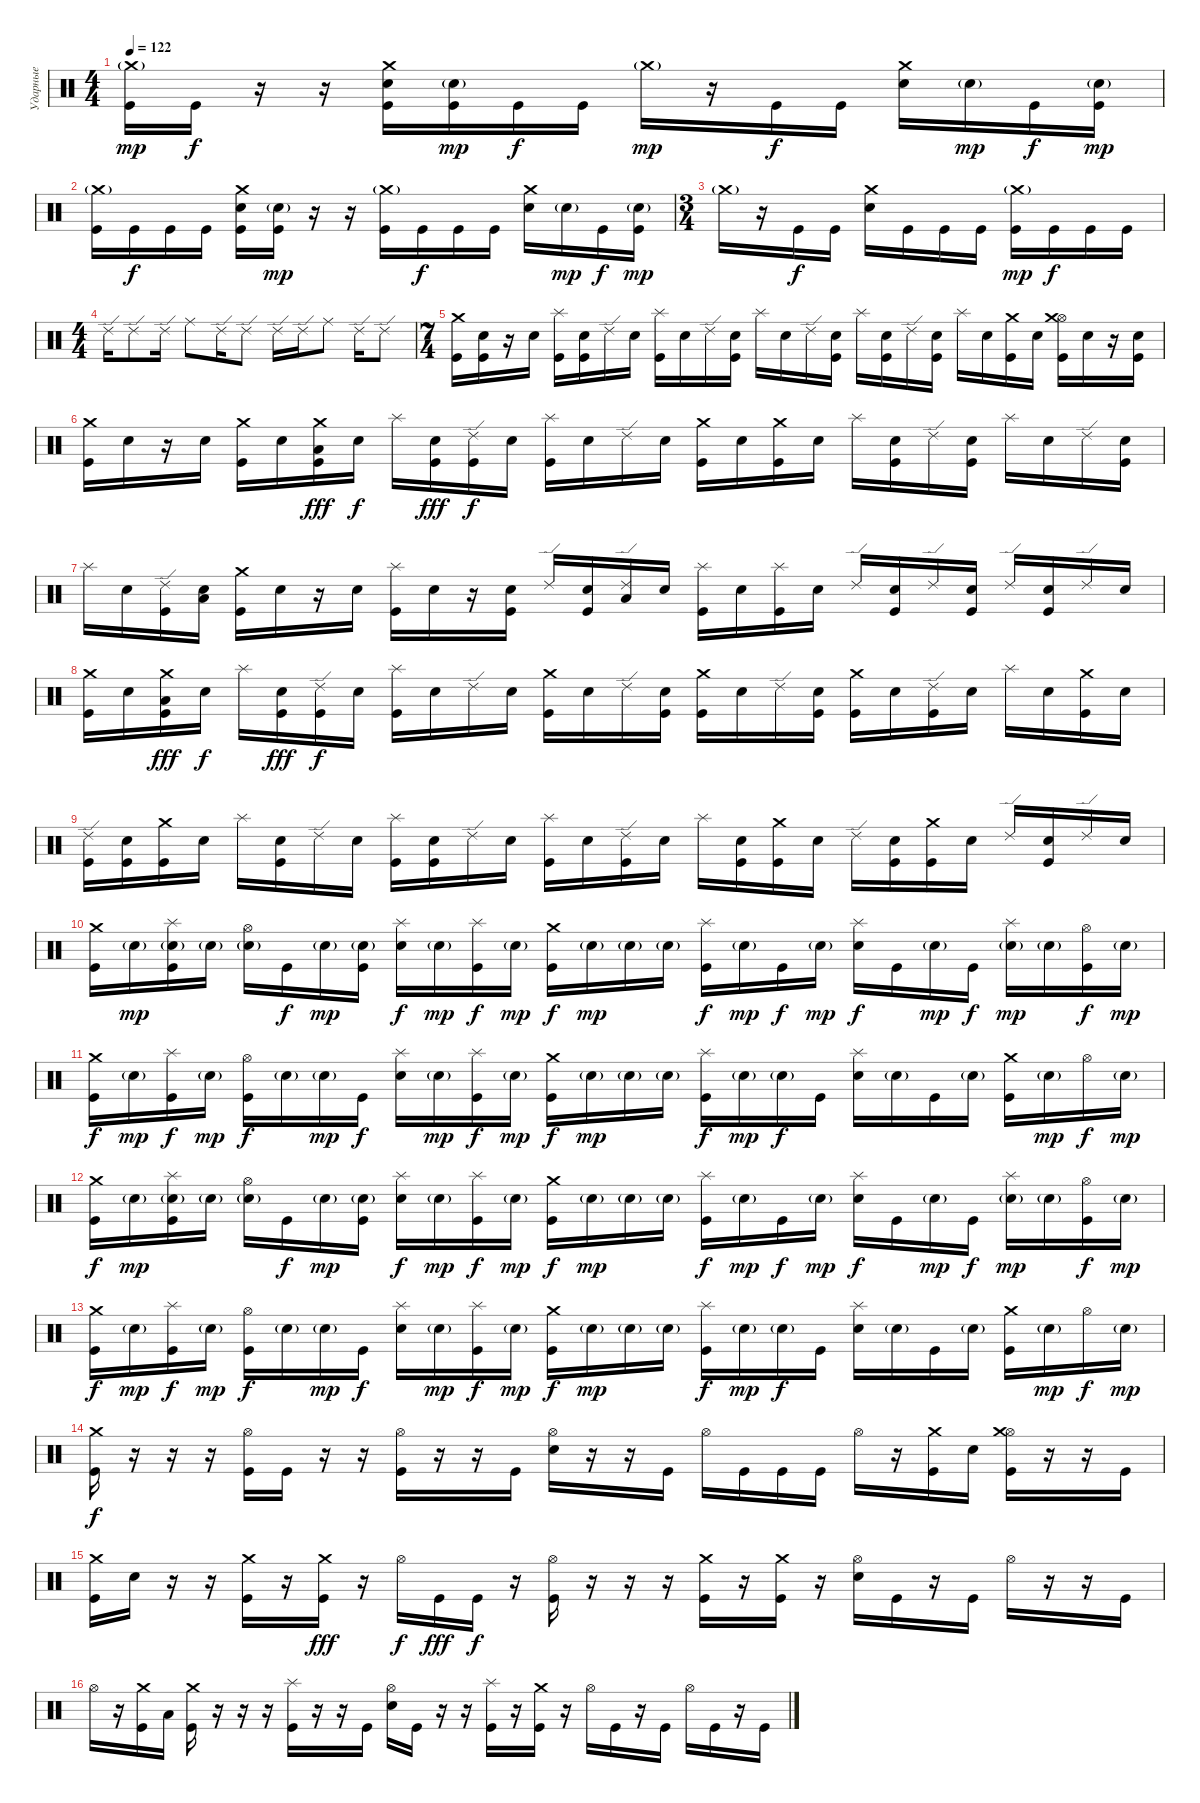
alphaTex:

\track ("Ударные" "Ударные") {instrument percussion}
\staff {score}
\articulation defaults
\ts (4 4)
\tempo 122
\clef neutral
\ks c
("Crash medium (hit)"{g} "Kick (hit)").16{dy mp} "Kick (hit)".16{dy f} r.16 r.16 ("Crash medium (hit)" "Electric Snare (hit)" "Kick (hit)").16 ("Electric Snare (hit)"{g} "Kick (hit)").16{dy mp} "Kick (hit)".16{dy f} "Kick (hit)".16 "Crash medium (hit)"{g}.16{dy mp} r.16 "Kick (hit)".16{dy f} "Kick (hit)".16 ("Crash medium (hit)" "Electric Snare (hit)").16 "Electric Snare (hit)"{g}.16{dy mp} "Kick (hit)".16{dy f} ("Electric Snare (hit)"{g} "Kick (hit)").16{dy mp} |
("Crash medium (hit)"{g} "Kick (hit)").16 "Kick (hit)".16{dy f} "Kick (hit)".16 "Kick (hit)".16 ("Crash medium (hit)" "Electric Snare (hit)" "Kick (hit)").16 ("Electric Snare (hit)"{g} "Kick (hit)").16{dy mp} r.16 r.16 ("Crash medium (hit)"{g} "Kick (hit)").16 "Kick (hit)".16{dy f} "Kick (hit)".16 "Kick (hit)".16 ("Crash medium (hit)" "Electric Snare (hit)").16 "Electric Snare (hit)"{g}.16{dy mp} "Kick (hit)".16{dy f} ("Electric Snare (hit)"{g} "Kick (hit)").16{dy mp} |
\ts (3 4)
"Crash medium (hit)"{g}.16 r.16 "Kick (hit)".16{dy f} "Kick (hit)".16 ("Crash medium (hit)" "Electric Snare (hit)").16 "Kick (hit)".16 "Kick (hit)".16 "Kick (hit)".16 ("Crash medium (hit)"{g} "Kick (hit)").16{dy mp} "Kick (hit)".16{dy f} "Kick (hit)".16 "Kick (hit)".16 |
\ts (4 4)
"Ride (edge) 2".16 "Ride (edge) 2".8 "Ride (edge) 2".16 "Ride (middle)".8 "Ride (edge) 2".16 "Ride (edge) 2".8 "Ride (edge) 2".16 "Ride (edge) 2".16 "Ride (middle)".8 "Ride (edge) 2".16 "Ride (edge) 2".8 |
\ts (7 4)
("Crash medium (hit)" "Kick (hit)").16 ("Electric Snare (hit)" "Kick (hit)").16 r.16 "Electric Snare (hit)".16 ("Splash (hit)" "Kick (hit)").16 ("Electric Snare (hit)" "Kick (hit)").16 "Ride (edge) 2".16 "Electric Snare (hit)".16 ("Splash (hit)" "Kick (hit)").16 "Electric Snare (hit)".16 "Ride (edge) 2".16 ("Electric Snare (hit)" "Kick (hit)").16 "Splash (hit)".16 "Electric Snare (hit)".16 "Ride (edge) 2".16 ("Electric Snare (hit)" "Kick (hit)").16 "Splash (hit)".16 ("Electric Snare (hit)" "Kick (hit)").16 "Ride (edge) 2".16 ("Electric Snare (hit)" "Kick (hit)").16 "Splash (hit)".16 "Electric Snare (hit)".16 ("Crash medium (hit)" "Kick (hit)").16 "Electric Snare (hit)".16 ("Hi-Hat (open)" "Crash medium (hit)" "Kick (hit)").16 "Electric Snare (hit)".16 r.16 ("Electric Snare (hit)" "Kick (hit)").16 |
("Crash medium (hit)" "Kick (hit)").16 "Electric Snare (hit)".16 r.16 "Electric Snare (hit)".16 ("Crash medium (hit)" "Kick (hit)").16 "Electric Snare (hit)".16 ("Crash medium (hit)" "Low Tom (hit)" "Kick (hit)").16{dy fff} "Electric Snare (hit)".16{dy f} "Splash (hit)".16 ("Electric Snare (hit)" "Kick (hit)").16{dy fff} ("Ride (edge) 2" "Kick (hit)").16{dy f} "Electric Snare (hit)".16 ("Splash (hit)" "Kick (hit)").16 "Electric Snare (hit)".16 "Ride (edge) 2".16 "Electric Snare (hit)".16 ("Crash medium (hit)" "Kick (hit)").16 "Electric Snare (hit)".16 ("Crash medium (hit)" "Kick (hit)").16 "Electric Snare (hit)".16 "Splash (hit)".16 ("Electric Snare (hit)" "Kick (hit)").16 "Ride (edge) 2".16 ("Electric Snare (hit)" "Kick (hit)").16 "Splash (hit)".16 "Electric Snare (hit)".16 "Ride (edge) 2".16 ("Electric Snare (hit)" "Kick (hit)").16 |
"Splash (hit)".16 "Electric Snare (hit)".16 ("Ride (edge) 2" "Kick (hit)").16 ("Electric Snare (hit)" "Low Tom (hit)").16 ("Crash medium (hit)" "Kick (hit)").16 "Electric Snare (hit)".16 r.16 "Electric Snare (hit)".16 ("Splash (hit)" "Kick (hit)").16 "Electric Snare (hit)".16 r.16 ("Electric Snare (hit)" "Kick (hit)").16 "Ride (edge) 2".16 ("Electric Snare (hit)" "Kick (hit)").16 ("Ride (edge) 2" "Low Tom (hit)").16 "Electric Snare (hit)".16 ("Splash (hit)" "Kick (hit)").16 "Electric Snare (hit)".16 ("Splash (hit)" "Kick (hit)").16 "Electric Snare (hit)".16 "Ride (edge) 2".16 ("Electric Snare (hit)" "Kick (hit)").16 "Ride (edge) 2".16 ("Electric Snare (hit)" "Kick (hit)").16 "Ride (edge) 2".16 ("Electric Snare (hit)" "Kick (hit)").16 "Ride (edge) 2".16 "Electric Snare (hit)".16 |
("Crash medium (hit)" "Kick (hit)").16 "Electric Snare (hit)".16 ("Crash medium (hit)" "Low Tom (hit)" "Kick (hit)").16{dy fff} "Electric Snare (hit)".16{dy f} "Splash (hit)".16 ("Electric Snare (hit)" "Kick (hit)").16{dy fff} ("Ride (edge) 2" "Kick (hit)").16{dy f} "Electric Snare (hit)".16 ("Splash (hit)" "Kick (hit)").16 "Electric Snare (hit)".16 "Ride (edge) 2".16 "Electric Snare (hit)".16 ("Crash medium (hit)" "Kick (hit)").16 "Electric Snare (hit)".16 "Ride (edge) 2".16 ("Electric Snare (hit)" "Kick (hit)").16 ("Crash medium (hit)" "Kick (hit)").16 "Electric Snare (hit)".16 "Ride (edge) 2".16 ("Electric Snare (hit)" "Kick (hit)").16 ("Crash medium (hit)" "Kick (hit)").16 "Electric Snare (hit)".16 ("Ride (edge) 2" "Kick (hit)").16 "Electric Snare (hit)".16 "Splash (hit)".16 "Electric Snare (hit)".16 ("Crash medium (hit)" "Kick (hit)").16 "Electric Snare (hit)".16 |
("Ride (edge) 2" "Kick (hit)").16 ("Electric Snare (hit)" "Kick (hit)").16 ("Crash medium (hit)" "Kick (hit)").16 "Electric Snare (hit)".16 "Splash (hit)".16 ("Electric Snare (hit)" "Kick (hit)").16 "Ride (edge) 2".16 "Electric Snare (hit)".16 ("Splash (hit)" "Kick (hit)").16 ("Electric Snare (hit)" "Kick (hit)").16 "Ride (edge) 2".16 "Electric Snare (hit)".16 ("Splash (hit)" "Kick (hit)").16 "Electric Snare (hit)".16 ("Ride (edge) 2" "Kick (hit)").16 "Electric Snare (hit)".16 "Splash (hit)".16 ("Electric Snare (hit)" "Kick (hit)").16 ("Crash medium (hit)" "Kick (hit)").16 "Electric Snare (hit)".16 "Ride (edge) 2".16 ("Electric Snare (hit)" "Kick (hit)").16 ("Crash medium (hit)" "Kick (hit)").16 "Electric Snare (hit)".16 "Ride (edge) 2".16 ("Electric Snare (hit)" "Kick (hit)").16 "Ride (edge) 2".16 "Electric Snare (hit)".16 |
("Crash medium (hit)" "Kick (hit)").16 "Electric Snare (hit)"{g}.16{dy mp} ("Splash (hit)" "Electric Snare (hit)"{g} "Kick (hit)").16 "Electric Snare (hit)"{g}.16 ("Hi-Hat (open)" "Electric Snare (hit)"{g}).16 "Kick (hit)".16{dy f} "Electric Snare (hit)"{g}.16{dy mp} ("Electric Snare (hit)"{g} "Kick (hit)").16 ("Splash (hit)" "Electric Snare (hit)").16{dy f} "Electric Snare (hit)"{g}.16{dy mp} ("Splash (hit)" "Kick (hit)").16{dy f} "Electric Snare (hit)"{g}.16{dy mp} ("Crash medium (hit)" "Kick (hit)").16{dy f} "Electric Snare (hit)"{g}.16{dy mp} "Electric Snare (hit)"{g}.16 "Electric Snare (hit)"{g}.16 ("Splash (hit)" "Kick (hit)").16{dy f} "Electric Snare (hit)"{g}.16{dy mp} "Kick (hit)".16{dy f} "Electric Snare (hit)"{g}.16{dy mp} ("Splash (hit)" "Electric Snare (hit)").16{dy f} "Kick (hit)".16 "Electric Snare (hit)"{g}.16{dy mp} "Kick (hit)".16{dy f} ("Splash (hit)" "Electric Snare (hit)"{g}).16{dy mp} "Electric Snare (hit)"{g}.16 ("Hi-Hat (open)" "Kick (hit)").16{dy f} "Electric Snare (hit)"{g}.16{dy mp} |
("Crash medium (hit)" "Kick (hit)").16{dy f} "Electric Snare (hit)"{g}.16{dy mp} ("Splash (hit)" "Kick (hit)").16{dy f} "Electric Snare (hit)"{g}.16{dy mp} ("Hi-Hat (open)" "Kick (hit)").16{dy f} "Electric Snare (hit)"{g}.16 "Electric Snare (hit)"{g}.16{dy mp} "Kick (hit)".16{dy f} ("Splash (hit)" "Electric Snare (hit)").16 "Electric Snare (hit)"{g}.16{dy mp} ("Splash (hit)" "Kick (hit)").16{dy f} "Electric Snare (hit)"{g}.16{dy mp} ("Crash medium (hit)" "Kick (hit)").16{dy f} "Electric Snare (hit)"{g}.16{dy mp} "Electric Snare (hit)"{g}.16 "Electric Snare (hit)"{g}.16 ("Splash (hit)" "Kick (hit)").16{dy f} "Electric Snare (hit)"{g}.16{dy mp} "Electric Snare (hit)"{g}.16{dy f} "Kick (hit)".16 ("Splash (hit)" "Electric Snare (hit)").16 "Electric Snare (hit)"{g}.16 "Kick (hit)".16 "Electric Snare (hit)"{g}.16 ("Crash medium (hit)" "Kick (hit)").16 "Electric Snare (hit)"{g}.16{dy mp} "Hi-Hat (open)".16{dy f} "Electric Snare (hit)"{g}.16{dy mp} |
("Crash medium (hit)" "Kick (hit)").16{dy f} "Electric Snare (hit)"{g}.16{dy mp} ("Splash (hit)" "Electric Snare (hit)"{g} "Kick (hit)").16 "Electric Snare (hit)"{g}.16 ("Hi-Hat (open)" "Electric Snare (hit)"{g}).16 "Kick (hit)".16{dy f} "Electric Snare (hit)"{g}.16{dy mp} ("Electric Snare (hit)"{g} "Kick (hit)").16 ("Splash (hit)" "Electric Snare (hit)").16{dy f} "Electric Snare (hit)"{g}.16{dy mp} ("Splash (hit)" "Kick (hit)").16{dy f} "Electric Snare (hit)"{g}.16{dy mp} ("Crash medium (hit)" "Kick (hit)").16{dy f} "Electric Snare (hit)"{g}.16{dy mp} "Electric Snare (hit)"{g}.16 "Electric Snare (hit)"{g}.16 ("Splash (hit)" "Kick (hit)").16{dy f} "Electric Snare (hit)"{g}.16{dy mp} "Kick (hit)".16{dy f} "Electric Snare (hit)"{g}.16{dy mp} ("Splash (hit)" "Electric Snare (hit)").16{dy f} "Kick (hit)".16 "Electric Snare (hit)"{g}.16{dy mp} "Kick (hit)".16{dy f} ("Splash (hit)" "Electric Snare (hit)"{g}).16{dy mp} "Electric Snare (hit)"{g}.16 ("Hi-Hat (open)" "Kick (hit)").16{dy f} "Electric Snare (hit)"{g}.16{dy mp} |
("Crash medium (hit)" "Kick (hit)").16{dy f} "Electric Snare (hit)"{g}.16{dy mp} ("Splash (hit)" "Kick (hit)").16{dy f} "Electric Snare (hit)"{g}.16{dy mp} ("Hi-Hat (open)" "Kick (hit)").16{dy f} "Electric Snare (hit)"{g}.16 "Electric Snare (hit)"{g}.16{dy mp} "Kick (hit)".16{dy f} ("Splash (hit)" "Electric Snare (hit)").16 "Electric Snare (hit)"{g}.16{dy mp} ("Splash (hit)" "Kick (hit)").16{dy f} "Electric Snare (hit)"{g}.16{dy mp} ("Crash medium (hit)" "Kick (hit)").16{dy f} "Electric Snare (hit)"{g}.16{dy mp} "Electric Snare (hit)"{g}.16 "Electric Snare (hit)"{g}.16 ("Splash (hit)" "Kick (hit)").16{dy f} "Electric Snare (hit)"{g}.16{dy mp} "Electric Snare (hit)"{g}.16{dy f} "Kick (hit)".16 ("Splash (hit)" "Electric Snare (hit)").16 "Electric Snare (hit)"{g}.16 "Kick (hit)".16 "Electric Snare (hit)"{g}.16 ("Crash medium (hit)" "Kick (hit)").16 "Electric Snare (hit)"{g}.16{dy mp} "Hi-Hat (open)".16{dy f} "Electric Snare (hit)"{g}.16{dy mp} |
("Crash medium (hit)" "Kick (hit)").16{dy f} r.16 r.16 r.16 ("Hi-Hat (open)" "Kick (hit)").16 "Kick (hit)".16 r.16 r.16 ("Hi-Hat (open)" "Kick (hit)").16 r.16 r.16 "Kick (hit)".16 ("Hi-Hat (open)" "Electric Snare (hit)").16 r.16 r.16 "Kick (hit)".16 "Hi-Hat (open)".16 "Kick (hit)".16 "Kick (hit)".16 "Kick (hit)".16 "Hi-Hat (open)".16 r.16 ("Crash medium (hit)" "Kick (hit)").16 "Electric Snare (hit)".16 ("Hi-Hat (open)" "Crash medium (hit)" "Kick (hit)").16 r.16 r.16 "Kick (hit)".16 |
("Crash medium (hit)" "Kick (hit)").16 "Electric Snare (hit)".16 r.16 r.16 ("Crash medium (hit)" "Kick (hit)").16 r.16 ("Crash medium (hit)" "Kick (hit)").16{dy fff} r.16 "Hi-Hat (open)".16{dy f} "Kick (hit)".16{dy fff} "Kick (hit)".16{dy f} r.16 ("Hi-Hat (open)" "Kick (hit)").16 r.16 r.16 r.16 ("Crash medium (hit)" "Kick (hit)").16 r.16 ("Crash medium (hit)" "Kick (hit)").16 r.16 ("Hi-Hat (open)" "Electric Snare (hit)").16 "Kick (hit)".16 r.16 "Kick (hit)".16 "Hi-Hat (open)".16 r.16 r.16 "Kick (hit)".16 |
"Hi-Hat (open)".16 r.16 ("Crash medium (hit)" "Kick (hit)").16 "Low Tom (hit)".16 ("Crash medium (hit)" "Kick (hit)").16 r.16 r.16 r.16 ("Splash (hit)" "Kick (hit)").16 r.16 r.16 "Kick (hit)".16 ("Hi-Hat (open)" "Electric Snare (hit)").16 "Kick (hit)".16 r.16 r.16 ("Splash (hit)" "Kick (hit)").16 r.16 ("Crash medium (hit)" "Kick (hit)").16 r.16 "Hi-Hat (open)".16 "Kick (hit)".16 r.16 "Kick (hit)".16 "Hi-Hat (open)".16 "Kick (hit)".16 r.16 "Kick (hit)".16
